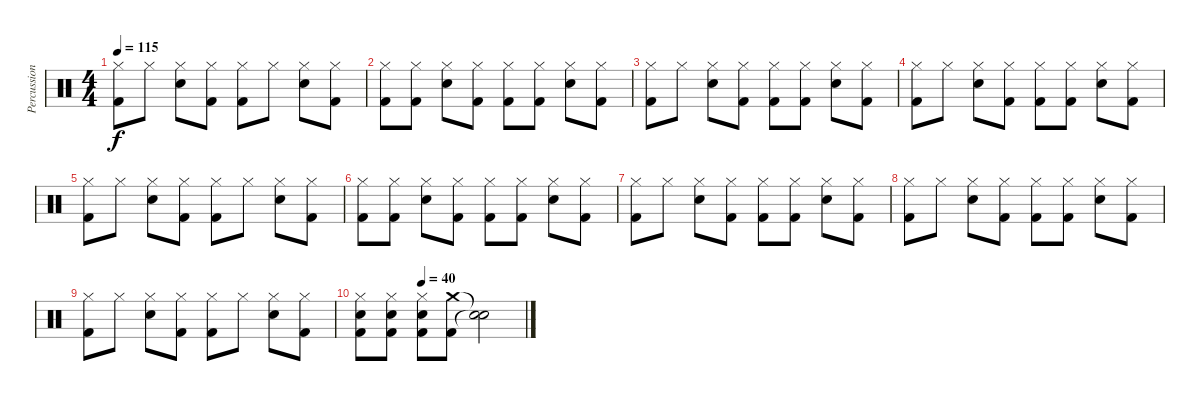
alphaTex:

\track ("Percussions" "Percussion") {instrument percussion}
\staff {score}
\articulation defaults
\ts (4 4)
\tempo 115
\clef neutral
\ks c
("Hi-Hat (closed)" "Kick (hit) 2").8{dy f} "Hi-Hat (closed)".8 ("Hi-Hat (closed)" "Snare (hit) 2").8 ("Hi-Hat (closed)" "Kick (hit) 2").8 ("Hi-Hat (closed)" "Kick (hit) 2").8 "Hi-Hat (closed)".8 ("Hi-Hat (closed)" "Snare (hit) 2").8 ("Hi-Hat (closed)" "Kick (hit) 2").8 |
("Hi-Hat (closed)" "Kick (hit) 2").8 ("Hi-Hat (closed)" "Kick (hit) 2").8 ("Hi-Hat (closed)" "Snare (hit) 2").8 ("Hi-Hat (closed)" "Kick (hit) 2").8 ("Hi-Hat (closed)" "Kick (hit) 2").8 ("Hi-Hat (closed)" "Kick (hit) 2").8 ("Hi-Hat (closed)" "Snare (hit) 2").8 ("Hi-Hat (closed)" "Kick (hit) 2").8 |
("Hi-Hat (closed)" "Kick (hit) 2").8 "Hi-Hat (closed)".8 ("Hi-Hat (closed)" "Snare (hit) 2").8 ("Hi-Hat (closed)" "Kick (hit) 2").8 ("Hi-Hat (closed)" "Kick (hit) 2").8 ("Hi-Hat (closed)" "Kick (hit) 2").8 ("Hi-Hat (closed)" "Snare (hit) 2").8 ("Hi-Hat (closed)" "Kick (hit) 2").8 |
("Hi-Hat (closed)" "Kick (hit) 2").8 "Hi-Hat (closed)".8 ("Hi-Hat (closed)" "Snare (hit) 2").8 ("Hi-Hat (closed)" "Kick (hit) 2").8 ("Hi-Hat (closed)" "Kick (hit) 2").8 ("Hi-Hat (closed)" "Kick (hit) 2").8 ("Hi-Hat (closed)" "Snare (hit) 2").8 ("Hi-Hat (closed)" "Kick (hit) 2").8 |
("Hi-Hat (closed)" "Kick (hit) 2").8 "Hi-Hat (closed)".8 ("Hi-Hat (closed)" "Snare (hit) 2").8 ("Hi-Hat (closed)" "Kick (hit) 2").8 ("Hi-Hat (closed)" "Kick (hit) 2").8 "Hi-Hat (closed)".8 ("Hi-Hat (closed)" "Snare (hit) 2").8 ("Hi-Hat (closed)" "Kick (hit) 2").8 |
("Hi-Hat (closed)" "Kick (hit) 2").8 ("Hi-Hat (closed)" "Kick (hit) 2").8 ("Hi-Hat (closed)" "Snare (hit) 2").8 ("Hi-Hat (closed)" "Kick (hit) 2").8 ("Hi-Hat (closed)" "Kick (hit) 2").8 ("Hi-Hat (closed)" "Kick (hit) 2").8 ("Hi-Hat (closed)" "Snare (hit) 2").8 ("Hi-Hat (closed)" "Kick (hit) 2").8 |
("Hi-Hat (closed)" "Kick (hit) 2").8 "Hi-Hat (closed)".8 ("Hi-Hat (closed)" "Snare (hit) 2").8 ("Hi-Hat (closed)" "Kick (hit) 2").8 ("Hi-Hat (closed)" "Kick (hit) 2").8 ("Hi-Hat (closed)" "Kick (hit) 2").8 ("Hi-Hat (closed)" "Snare (hit) 2").8 ("Hi-Hat (closed)" "Kick (hit) 2").8 |
("Hi-Hat (closed)" "Kick (hit) 2").8 "Hi-Hat (closed)".8 ("Hi-Hat (closed)" "Snare (hit) 2").8 ("Hi-Hat (closed)" "Kick (hit) 2").8 ("Hi-Hat (closed)" "Kick (hit) 2").8 ("Hi-Hat (closed)" "Kick (hit) 2").8 ("Hi-Hat (closed)" "Snare (hit) 2").8 ("Hi-Hat (closed)" "Kick (hit) 2").8 |
("Hi-Hat (closed)" "Kick (hit) 2").8 "Hi-Hat (closed)".8 ("Hi-Hat (closed)" "Snare (hit) 2").8 ("Hi-Hat (closed)" "Kick (hit) 2").8 ("Hi-Hat (closed)" "Kick (hit) 2").8 "Hi-Hat (closed)".8 ("Hi-Hat (closed)" "Snare (hit) 2").8 ("Hi-Hat (closed)" "Kick (hit) 2").8 |
\tempo (40 0.375)
("Hi-Hat (closed)" "Snare (hit) 2" "Kick (hit) 2").8 ("Hi-Hat (closed)" "Snare (hit) 2" "Kick (hit) 2").8 ("Hi-Hat (closed)" "Snare (hit) 2" "Kick (hit) 2").8 ("Crash medium (hit)" "Kick (hit) 2").8 ("Snare (hit)"{t} "Snare (hit)"{t}).2
